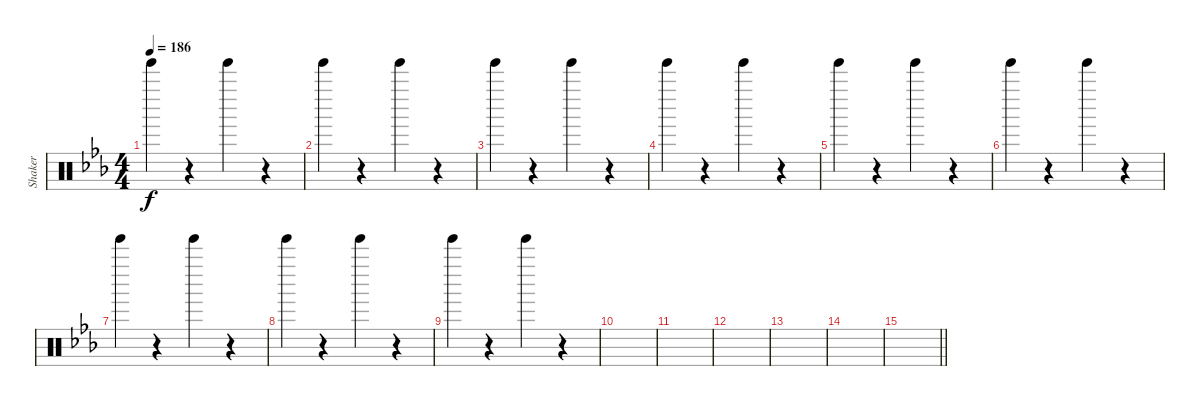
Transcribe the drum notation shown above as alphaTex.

\track ("Shaker" "Shaker") {instrument percussion}
\staff {score}
\articulation defaults
\ts (4 4)
\tempo 186
\clef neutral
\ks eb "Tinkle Bell (hit)".4{dy f}
r.4 "Tinkle Bell (hit)".4 r.4 |
"Tinkle Bell (hit)".4 r.4 "Tinkle Bell (hit)".4 r.4 |
"Tinkle Bell (hit)".4 r.4 "Tinkle Bell (hit)".4 r.4 |
"Tinkle Bell (hit)".4 r.4 "Tinkle Bell (hit)".4 r.4 |
"Tinkle Bell (hit)".4 r.4 "Tinkle Bell (hit)".4 r.4 |
"Tinkle Bell (hit)".4 r.4 "Tinkle Bell (hit)".4 r.4 |
"Tinkle Bell (hit)".4 r.4 "Tinkle Bell (hit)".4 r.4 |
"Tinkle Bell (hit)".4 r.4 "Tinkle Bell (hit)".4 r.4 |
"Tinkle Bell (hit)".4 r.4 "Tinkle Bell (hit)".4 r.4 |
|
|
|
|
|
\barLineRight lightlight
